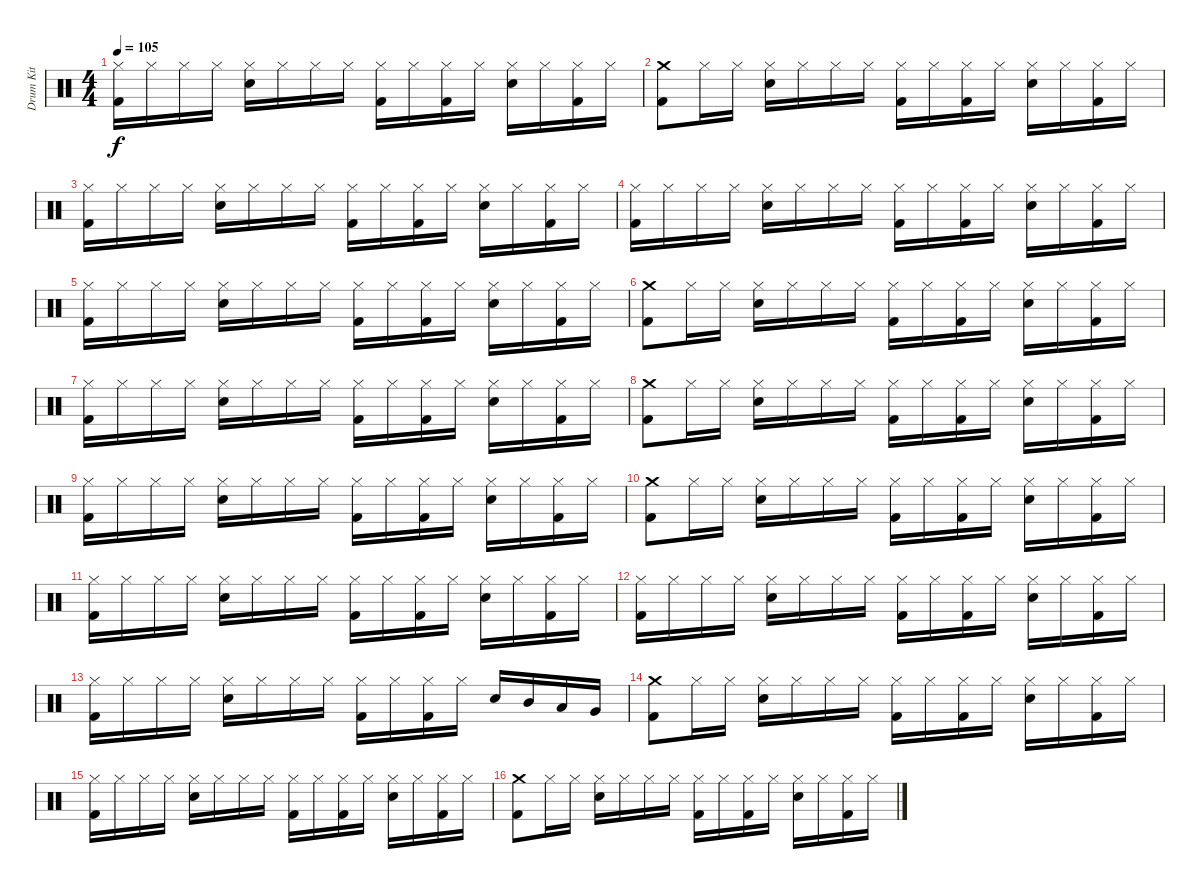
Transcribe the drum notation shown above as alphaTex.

\track ("Drum Kit" "Drum Kit") {instrument percussion}
\staff {score}
\articulation defaults
\ts (4 4)
\tempo 105
\clef neutral
\ks c
("Hi-Hat (closed)" "Kick (hit) 2").16{dy f} "Hi-Hat (closed)".16 "Hi-Hat (closed)".16 "Hi-Hat (closed)".16 ("Hi-Hat (closed)" "Electric Snare (hit)").16 "Hi-Hat (closed)".16 "Hi-Hat (closed)".16 "Hi-Hat (closed)".16 ("Hi-Hat (closed)" "Kick (hit) 2").16 "Hi-Hat (closed)".16 ("Hi-Hat (closed)" "Kick (hit) 2").16 "Hi-Hat (closed)".16 ("Hi-Hat (closed)" "Electric Snare (hit)").16 "Hi-Hat (closed)".16 ("Hi-Hat (closed)" "Kick (hit) 2").16 "Hi-Hat (closed)".16 |
("Crash medium (hit)" "Kick (hit) 2").8 "Hi-Hat (closed)".16 "Hi-Hat (closed)".16 ("Hi-Hat (closed)" "Electric Snare (hit)").16 "Hi-Hat (closed)".16 "Hi-Hat (closed)".16 "Hi-Hat (closed)".16 ("Hi-Hat (closed)" "Kick (hit) 2").16 "Hi-Hat (closed)".16 ("Hi-Hat (closed)" "Kick (hit) 2").16 "Hi-Hat (closed)".16 ("Hi-Hat (closed)" "Electric Snare (hit)").16 "Hi-Hat (closed)".16 ("Hi-Hat (closed)" "Kick (hit) 2").16 "Hi-Hat (closed)".16 |
("Hi-Hat (closed)" "Kick (hit) 2").16 "Hi-Hat (closed)".16 "Hi-Hat (closed)".16 "Hi-Hat (closed)".16 ("Hi-Hat (closed)" "Electric Snare (hit)").16 "Hi-Hat (closed)".16 "Hi-Hat (closed)".16 "Hi-Hat (closed)".16 ("Hi-Hat (closed)" "Kick (hit) 2").16 "Hi-Hat (closed)".16 ("Hi-Hat (closed)" "Kick (hit) 2").16 "Hi-Hat (closed)".16 ("Hi-Hat (closed)" "Electric Snare (hit)").16 "Hi-Hat (closed)".16 ("Hi-Hat (closed)" "Kick (hit) 2").16 "Hi-Hat (closed)".16 |
("Hi-Hat (closed)" "Kick (hit) 2").16 "Hi-Hat (closed)".16 "Hi-Hat (closed)".16 "Hi-Hat (closed)".16 ("Hi-Hat (closed)" "Electric Snare (hit)").16 "Hi-Hat (closed)".16 "Hi-Hat (closed)".16 "Hi-Hat (closed)".16 ("Hi-Hat (closed)" "Kick (hit) 2").16 "Hi-Hat (closed)".16 ("Hi-Hat (closed)" "Kick (hit) 2").16 "Hi-Hat (closed)".16 ("Hi-Hat (closed)" "Electric Snare (hit)").16 "Hi-Hat (closed)".16 ("Hi-Hat (closed)" "Kick (hit) 2").16 "Hi-Hat (closed)".16 |
("Hi-Hat (closed)" "Kick (hit) 2").16 "Hi-Hat (closed)".16 "Hi-Hat (closed)".16 "Hi-Hat (closed)".16 ("Hi-Hat (closed)" "Electric Snare (hit)").16 "Hi-Hat (closed)".16 "Hi-Hat (closed)".16 "Hi-Hat (closed)".16 ("Hi-Hat (closed)" "Kick (hit) 2").16 "Hi-Hat (closed)".16 ("Hi-Hat (closed)" "Kick (hit) 2").16 "Hi-Hat (closed)".16 ("Hi-Hat (closed)" "Electric Snare (hit)").16 "Hi-Hat (closed)".16 ("Hi-Hat (closed)" "Kick (hit) 2").16 "Hi-Hat (closed)".16 |
("Crash medium (hit)" "Kick (hit) 2").8 "Hi-Hat (closed)".16 "Hi-Hat (closed)".16 ("Hi-Hat (closed)" "Electric Snare (hit)").16 "Hi-Hat (closed)".16 "Hi-Hat (closed)".16 "Hi-Hat (closed)".16 ("Hi-Hat (closed)" "Kick (hit) 2").16 "Hi-Hat (closed)".16 ("Hi-Hat (closed)" "Kick (hit) 2").16 "Hi-Hat (closed)".16 ("Hi-Hat (closed)" "Electric Snare (hit)").16 "Hi-Hat (closed)".16 ("Hi-Hat (closed)" "Kick (hit) 2").16 "Hi-Hat (closed)".16 |
("Hi-Hat (closed)" "Kick (hit) 2").16 "Hi-Hat (closed)".16 "Hi-Hat (closed)".16 "Hi-Hat (closed)".16 ("Hi-Hat (closed)" "Electric Snare (hit)").16 "Hi-Hat (closed)".16 "Hi-Hat (closed)".16 "Hi-Hat (closed)".16 ("Hi-Hat (closed)" "Kick (hit) 2").16 "Hi-Hat (closed)".16 ("Hi-Hat (closed)" "Kick (hit) 2").16 "Hi-Hat (closed)".16 ("Hi-Hat (closed)" "Electric Snare (hit)").16 "Hi-Hat (closed)".16 ("Hi-Hat (closed)" "Kick (hit) 2").16 "Hi-Hat (closed)".16 |
("Crash medium (hit)" "Kick (hit) 2").8 "Hi-Hat (closed)".16 "Hi-Hat (closed)".16 ("Hi-Hat (closed)" "Electric Snare (hit)").16 "Hi-Hat (closed)".16 "Hi-Hat (closed)".16 "Hi-Hat (closed)".16 ("Hi-Hat (closed)" "Kick (hit) 2").16 "Hi-Hat (closed)".16 ("Hi-Hat (closed)" "Kick (hit) 2").16 "Hi-Hat (closed)".16 ("Hi-Hat (closed)" "Electric Snare (hit)").16 "Hi-Hat (closed)".16 ("Hi-Hat (closed)" "Kick (hit) 2").16 "Hi-Hat (closed)".16 |
("Hi-Hat (closed)" "Kick (hit) 2").16 "Hi-Hat (closed)".16 "Hi-Hat (closed)".16 "Hi-Hat (closed)".16 ("Hi-Hat (closed)" "Electric Snare (hit)").16 "Hi-Hat (closed)".16 "Hi-Hat (closed)".16 "Hi-Hat (closed)".16 ("Hi-Hat (closed)" "Kick (hit) 2").16 "Hi-Hat (closed)".16 ("Hi-Hat (closed)" "Kick (hit) 2").16 "Hi-Hat (closed)".16 ("Hi-Hat (closed)" "Electric Snare (hit)").16 "Hi-Hat (closed)".16 ("Hi-Hat (closed)" "Kick (hit) 2").16 "Hi-Hat (closed)".16 |
("Crash medium (hit)" "Kick (hit) 2").8 "Hi-Hat (closed)".16 "Hi-Hat (closed)".16 ("Hi-Hat (closed)" "Electric Snare (hit)").16 "Hi-Hat (closed)".16 "Hi-Hat (closed)".16 "Hi-Hat (closed)".16 ("Hi-Hat (closed)" "Kick (hit) 2").16 "Hi-Hat (closed)".16 ("Hi-Hat (closed)" "Kick (hit) 2").16 "Hi-Hat (closed)".16 ("Hi-Hat (closed)" "Electric Snare (hit)").16 "Hi-Hat (closed)".16 ("Hi-Hat (closed)" "Kick (hit) 2").16 "Hi-Hat (closed)".16 |
("Hi-Hat (closed)" "Kick (hit) 2").16 "Hi-Hat (closed)".16 "Hi-Hat (closed)".16 "Hi-Hat (closed)".16 ("Hi-Hat (closed)" "Electric Snare (hit)").16 "Hi-Hat (closed)".16 "Hi-Hat (closed)".16 "Hi-Hat (closed)".16 ("Hi-Hat (closed)" "Kick (hit) 2").16 "Hi-Hat (closed)".16 ("Hi-Hat (closed)" "Kick (hit) 2").16 "Hi-Hat (closed)".16 ("Hi-Hat (closed)" "Electric Snare (hit)").16 "Hi-Hat (closed)".16 ("Hi-Hat (closed)" "Kick (hit) 2").16 "Hi-Hat (closed)".16 |
("Hi-Hat (closed)" "Kick (hit) 2").16 "Hi-Hat (closed)".16 "Hi-Hat (closed)".16 "Hi-Hat (closed)".16 ("Hi-Hat (closed)" "Electric Snare (hit)").16 "Hi-Hat (closed)".16 "Hi-Hat (closed)".16 "Hi-Hat (closed)".16 ("Hi-Hat (closed)" "Kick (hit) 2").16 "Hi-Hat (closed)".16 ("Hi-Hat (closed)" "Kick (hit) 2").16 "Hi-Hat (closed)".16 ("Hi-Hat (closed)" "Electric Snare (hit)").16 "Hi-Hat (closed)".16 ("Hi-Hat (closed)" "Kick (hit) 2").16 "Hi-Hat (closed)".16 |
("Hi-Hat (closed)" "Kick (hit) 2").16 "Hi-Hat (closed)".16 "Hi-Hat (closed)".16 "Hi-Hat (closed)".16 ("Hi-Hat (closed)" "Electric Snare (hit)").16 "Hi-Hat (closed)".16 "Hi-Hat (closed)".16 "Hi-Hat (closed)".16 ("Hi-Hat (closed)" "Kick (hit) 2").16 "Hi-Hat (closed)".16 ("Hi-Hat (closed)" "Kick (hit) 2").16 "Hi-Hat (closed)".16 "Electric Snare (hit)".16 "Mid Tom (hit)".16 "Low Tom (hit)".16 "Very Low Tom (hit)".16 |
("Crash medium (hit)" "Kick (hit) 2").8 "Hi-Hat (closed)".16 "Hi-Hat (closed)".16 ("Hi-Hat (closed)" "Electric Snare (hit)").16 "Hi-Hat (closed)".16 "Hi-Hat (closed)".16 "Hi-Hat (closed)".16 ("Hi-Hat (closed)" "Kick (hit) 2").16 "Hi-Hat (closed)".16 ("Hi-Hat (closed)" "Kick (hit) 2").16 "Hi-Hat (closed)".16 ("Hi-Hat (closed)" "Electric Snare (hit)").16 "Hi-Hat (closed)".16 ("Hi-Hat (closed)" "Kick (hit) 2").16 "Hi-Hat (closed)".16 |
("Hi-Hat (closed)" "Kick (hit) 2").16 "Hi-Hat (closed)".16 "Hi-Hat (closed)".16 "Hi-Hat (closed)".16 ("Hi-Hat (closed)" "Electric Snare (hit)").16 "Hi-Hat (closed)".16 "Hi-Hat (closed)".16 "Hi-Hat (closed)".16 ("Hi-Hat (closed)" "Kick (hit) 2").16 "Hi-Hat (closed)".16 ("Hi-Hat (closed)" "Kick (hit) 2").16 "Hi-Hat (closed)".16 ("Hi-Hat (closed)" "Electric Snare (hit)").16 "Hi-Hat (closed)".16 ("Hi-Hat (closed)" "Kick (hit) 2").16 "Hi-Hat (closed)".16 |
("Crash medium (hit)" "Kick (hit) 2").8 "Hi-Hat (closed)".16 "Hi-Hat (closed)".16 ("Hi-Hat (closed)" "Electric Snare (hit)").16 "Hi-Hat (closed)".16 "Hi-Hat (closed)".16 "Hi-Hat (closed)".16 ("Hi-Hat (closed)" "Kick (hit) 2").16 "Hi-Hat (closed)".16 ("Hi-Hat (closed)" "Kick (hit) 2").16 "Hi-Hat (closed)".16 ("Hi-Hat (closed)" "Electric Snare (hit)").16 "Hi-Hat (closed)".16 ("Hi-Hat (closed)" "Kick (hit) 2").16 "Hi-Hat (closed)".16
